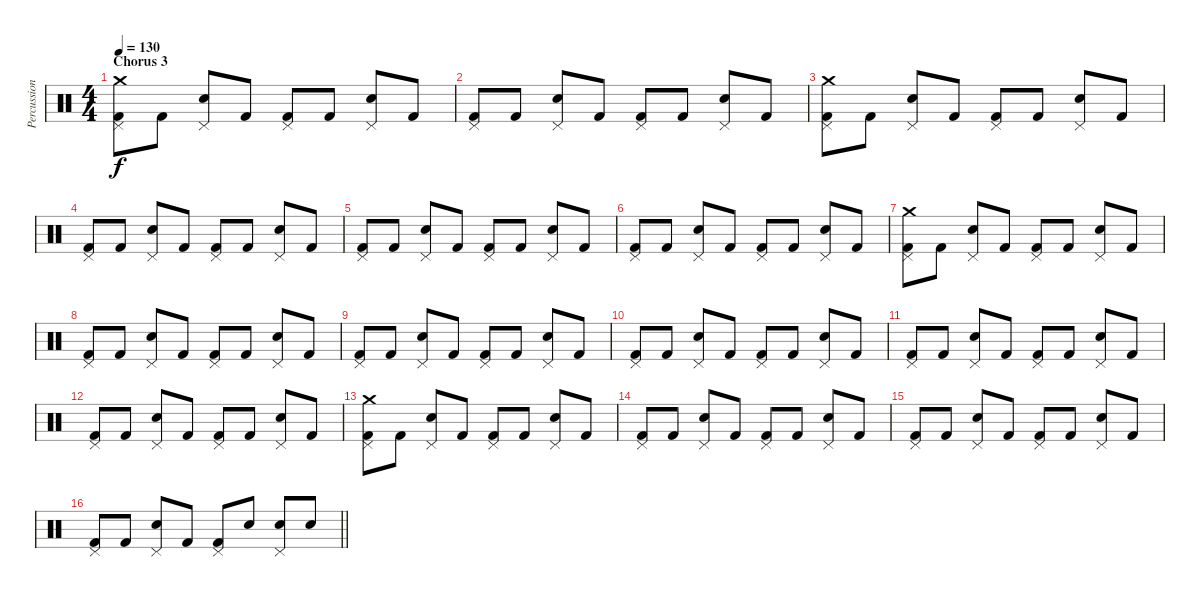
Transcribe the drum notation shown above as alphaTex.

\track ("Percussions" "Percussion") {instrument percussion}
\staff {score}
\articulation defaults
\ts (4 4)
\section ("" "Chorus 3")
\tempo 130
\clef neutral
\ks c
("Crash medium (hit)" "Pedal Hi-Hat (hit)" "Kick (hit) 2").8{dy f} "Kick (hit) 2".8 ("Pedal Hi-Hat (hit)" "Snare (hit) 2").8 "Kick (hit) 2".8 ("Pedal Hi-Hat (hit)" "Kick (hit) 2").8 "Kick (hit) 2".8 ("Pedal Hi-Hat (hit)" "Snare (hit) 2").8 "Kick (hit) 2".8 |
("Pedal Hi-Hat (hit)" "Kick (hit) 2").8 "Kick (hit) 2".8 ("Pedal Hi-Hat (hit)" "Snare (hit) 2").8 "Kick (hit) 2".8 ("Pedal Hi-Hat (hit)" "Kick (hit) 2").8 "Kick (hit) 2".8 ("Pedal Hi-Hat (hit)" "Snare (hit) 2").8 "Kick (hit) 2".8 |
("Crash medium (hit)" "Pedal Hi-Hat (hit)" "Kick (hit) 2").8 "Kick (hit) 2".8 ("Pedal Hi-Hat (hit)" "Snare (hit) 2").8 "Kick (hit) 2".8 ("Pedal Hi-Hat (hit)" "Kick (hit) 2").8 "Kick (hit) 2".8 ("Pedal Hi-Hat (hit)" "Snare (hit) 2").8 "Kick (hit) 2".8 |
("Pedal Hi-Hat (hit)" "Kick (hit) 2").8 "Kick (hit) 2".8 ("Pedal Hi-Hat (hit)" "Snare (hit) 2").8 "Kick (hit) 2".8 ("Pedal Hi-Hat (hit)" "Kick (hit) 2").8 "Kick (hit) 2".8 ("Pedal Hi-Hat (hit)" "Snare (hit) 2").8 "Kick (hit) 2".8 |
("Pedal Hi-Hat (hit)" "Kick (hit) 2").8 "Kick (hit) 2".8 ("Pedal Hi-Hat (hit)" "Snare (hit) 2").8 "Kick (hit) 2".8 ("Pedal Hi-Hat (hit)" "Kick (hit) 2").8 "Kick (hit) 2".8 ("Pedal Hi-Hat (hit)" "Snare (hit) 2").8 "Kick (hit) 2".8 |
("Pedal Hi-Hat (hit)" "Kick (hit) 2").8 "Kick (hit) 2".8 ("Pedal Hi-Hat (hit)" "Snare (hit) 2").8 "Kick (hit) 2".8 ("Pedal Hi-Hat (hit)" "Kick (hit) 2").8 "Kick (hit) 2".8 ("Pedal Hi-Hat (hit)" "Snare (hit) 2").8 "Kick (hit) 2".8 |
("Crash medium (hit)" "Pedal Hi-Hat (hit)" "Kick (hit) 2").8 "Kick (hit) 2".8 ("Pedal Hi-Hat (hit)" "Snare (hit) 2").8 "Kick (hit) 2".8 ("Pedal Hi-Hat (hit)" "Kick (hit) 2").8 "Kick (hit) 2".8 ("Pedal Hi-Hat (hit)" "Snare (hit) 2").8 "Kick (hit) 2".8 |
("Pedal Hi-Hat (hit)" "Kick (hit) 2").8 "Kick (hit) 2".8 ("Pedal Hi-Hat (hit)" "Snare (hit) 2").8 "Kick (hit) 2".8 ("Pedal Hi-Hat (hit)" "Kick (hit) 2").8 "Kick (hit) 2".8 ("Pedal Hi-Hat (hit)" "Snare (hit) 2").8 "Kick (hit) 2".8 |
("Pedal Hi-Hat (hit)" "Kick (hit) 2").8 "Kick (hit) 2".8 ("Pedal Hi-Hat (hit)" "Snare (hit) 2").8 "Kick (hit) 2".8 ("Pedal Hi-Hat (hit)" "Kick (hit) 2").8 "Kick (hit) 2".8 ("Pedal Hi-Hat (hit)" "Snare (hit) 2").8 "Kick (hit) 2".8 |
("Pedal Hi-Hat (hit)" "Kick (hit) 2").8 "Kick (hit) 2".8 ("Pedal Hi-Hat (hit)" "Snare (hit) 2").8 "Kick (hit) 2".8 ("Pedal Hi-Hat (hit)" "Kick (hit) 2").8 "Kick (hit) 2".8 ("Pedal Hi-Hat (hit)" "Snare (hit) 2").8 "Kick (hit) 2".8 |
("Pedal Hi-Hat (hit)" "Kick (hit) 2").8 "Kick (hit) 2".8 ("Pedal Hi-Hat (hit)" "Snare (hit) 2").8 "Kick (hit) 2".8 ("Pedal Hi-Hat (hit)" "Kick (hit) 2").8 "Kick (hit) 2".8 ("Pedal Hi-Hat (hit)" "Snare (hit) 2").8 "Kick (hit) 2".8 |
("Pedal Hi-Hat (hit)" "Kick (hit) 2").8 "Kick (hit) 2".8 ("Pedal Hi-Hat (hit)" "Snare (hit) 2").8 "Kick (hit) 2".8 ("Pedal Hi-Hat (hit)" "Kick (hit) 2").8 "Kick (hit) 2".8 ("Pedal Hi-Hat (hit)" "Snare (hit) 2").8 "Kick (hit) 2".8 |
("Crash medium (hit)" "Pedal Hi-Hat (hit)" "Kick (hit) 2").8 "Kick (hit) 2".8 ("Pedal Hi-Hat (hit)" "Snare (hit) 2").8 "Kick (hit) 2".8 ("Pedal Hi-Hat (hit)" "Kick (hit) 2").8 "Kick (hit) 2".8 ("Pedal Hi-Hat (hit)" "Snare (hit) 2").8 "Kick (hit) 2".8 |
("Pedal Hi-Hat (hit)" "Kick (hit) 2").8 "Kick (hit) 2".8 ("Pedal Hi-Hat (hit)" "Snare (hit) 2").8 "Kick (hit) 2".8 ("Pedal Hi-Hat (hit)" "Kick (hit) 2").8 "Kick (hit) 2".8 ("Pedal Hi-Hat (hit)" "Snare (hit) 2").8 "Kick (hit) 2".8 |
("Pedal Hi-Hat (hit)" "Kick (hit) 2").8 "Kick (hit) 2".8 ("Pedal Hi-Hat (hit)" "Snare (hit) 2").8 "Kick (hit) 2".8 ("Pedal Hi-Hat (hit)" "Kick (hit) 2").8 "Kick (hit) 2".8 ("Pedal Hi-Hat (hit)" "Snare (hit) 2").8 "Kick (hit) 2".8 |
\barLineRight lightlight
("Pedal Hi-Hat (hit)" "Kick (hit) 2").8 "Kick (hit) 2".8 ("Pedal Hi-Hat (hit)" "Snare (hit) 2").8 "Kick (hit) 2".8 ("Pedal Hi-Hat (hit)" "Kick (hit) 2").8 "Snare (hit) 2".8 ("Pedal Hi-Hat (hit)" "Snare (hit) 2").8 "Snare (hit) 2".8
